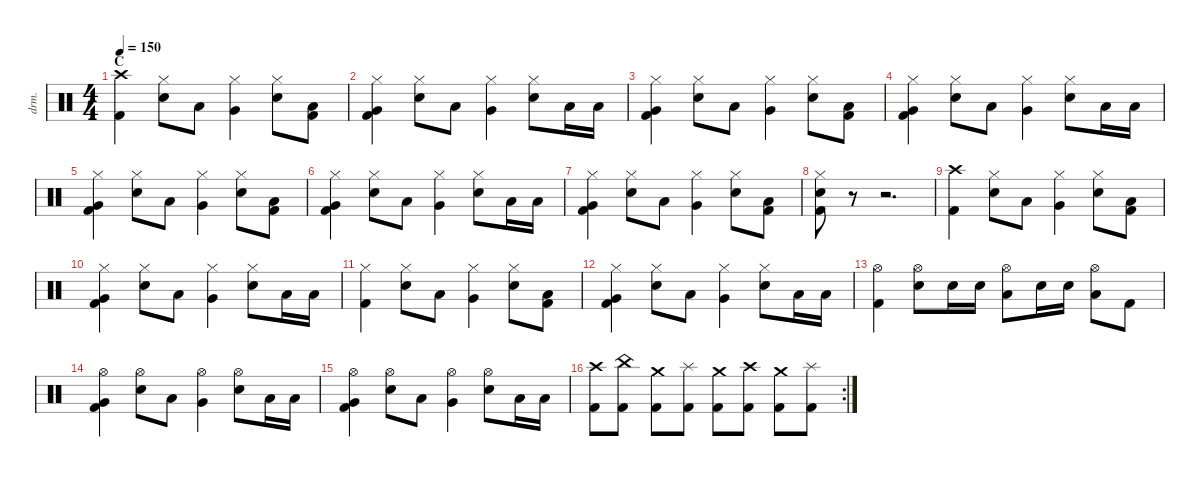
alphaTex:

\defaultSystemsLayout 4
\hideDynamics
\bracketExtendMode nobrackets
\otherSystemsTrackNameOrientation horizontal
\track ("Drum" "drm.") {instrument percussion}
\staff {score}
\articulation defaults
\ts (4 4)
\section ("" "C")
\tempo 150
\clef neutral
\ks c
("Crash high (hit)" "Kick (hit) 2").4{dy ff beam Down} ("Hi-Hat (closed)" "Snare (hit) 2").8{beam Down} "Low Tom (hit)".8{beam Down} ("Hi-Hat (closed)" "Very Low Tom (hit)").4{beam Down} ("Hi-Hat (closed)" "Snare (hit) 2").8{beam Down} ("Low Tom (hit)" "Kick (hit) 2").8{beam Down} |
("Hi-Hat (closed)" "Very Low Tom (hit)" "Kick (hit) 2").4{beam Down} ("Hi-Hat (closed)" "Snare (hit) 2").8{beam Down} "Low Tom (hit)".8{beam Down} ("Hi-Hat (closed)" "Very Low Tom (hit)").4{beam Down} ("Hi-Hat (closed)" "Snare (hit) 2").8{beam Down} "Low Tom (hit)".16{beam Down} "Low Tom (hit)".16{dy fff beam Down} |
("Hi-Hat (closed)" "Very Low Tom (hit)" "Kick (hit) 2").4{dy ff beam Down} ("Hi-Hat (closed)" "Snare (hit) 2").8{beam Down} "Low Tom (hit)".8{beam Down} ("Hi-Hat (closed)" "Very Low Tom (hit)").4{beam Down} ("Hi-Hat (closed)" "Snare (hit) 2").8{beam Down} ("Low Tom (hit)" "Kick (hit) 2").8{beam Down} |
("Hi-Hat (closed)" "Very Low Tom (hit)" "Kick (hit) 2").4{beam Down} ("Hi-Hat (closed)" "Snare (hit) 2").8{beam Down} "Low Tom (hit)".8{beam Down} ("Hi-Hat (closed)" "Very Low Tom (hit)").4{beam Down} ("Hi-Hat (closed)" "Snare (hit) 2").8{beam Down} "Low Tom (hit)".16{beam Down} "Low Tom (hit)".16{dy fff beam Down} |
("Hi-Hat (closed)" "Very Low Tom (hit)" "Kick (hit) 2").4{dy ff beam Down} ("Hi-Hat (closed)" "Snare (hit) 2").8{beam Down} "Low Tom (hit)".8{beam Down} ("Hi-Hat (closed)" "Very Low Tom (hit)").4{beam Down} ("Hi-Hat (closed)" "Snare (hit) 2").8{beam Down} ("Low Tom (hit)" "Kick (hit) 2").8{beam Down} |
("Hi-Hat (closed)" "Very Low Tom (hit)" "Kick (hit) 2").4{beam Down} ("Hi-Hat (closed)" "Snare (hit) 2").8{beam Down} "Low Tom (hit)".8{beam Down} ("Hi-Hat (closed)" "Very Low Tom (hit)").4{beam Down} ("Hi-Hat (closed)" "Snare (hit) 2").8{beam Down} "Low Tom (hit)".16{beam Down} "Low Tom (hit)".16{dy fff beam Down} |
("Hi-Hat (closed)" "Very Low Tom (hit)" "Kick (hit) 2").4{dy ff beam Down} ("Hi-Hat (closed)" "Snare (hit) 2").8{beam Down} "Low Tom (hit)".8{beam Down} ("Hi-Hat (closed)" "Very Low Tom (hit)").4{beam Down} ("Hi-Hat (closed)" "Snare (hit) 2").8{beam Down} ("Low Tom (hit)" "Kick (hit) 2").8{beam Down} |
("Hi-Hat (closed)" "Snare (hit) 2" "Kick (hit) 2").8{dy fff beam Down} r.8{beam Down} r.2{d beam Down} |
("Crash high (hit)" "Kick (hit) 2").4{dy ff beam Down} ("Hi-Hat (closed)" "Snare (hit) 2").8{beam Down} "Low Tom (hit)".8{beam Down} ("Hi-Hat (closed)" "Very Low Tom (hit)").4{beam Down} ("Hi-Hat (closed)" "Snare (hit) 2").8{beam Down} ("Low Tom (hit)" "Kick (hit) 2").8{beam Down} |
("Hi-Hat (closed)" "Very Low Tom (hit)" "Kick (hit) 2").4{beam Down} ("Hi-Hat (closed)" "Snare (hit) 2").8{beam Down} "Low Tom (hit)".8{beam Down} ("Hi-Hat (closed)" "Very Low Tom (hit)").4{beam Down} ("Hi-Hat (closed)" "Snare (hit) 2").8{beam Down} "Low Tom (hit)".16{beam Down} "Low Tom (hit)".16{dy fff beam Down} |
("Hi-Hat (closed)" "Kick (hit) 2").4{dy ff beam Down} ("Hi-Hat (closed)" "Snare (hit) 2").8{beam Down} "Low Tom (hit)".8{beam Down} ("Hi-Hat (closed)" "Very Low Tom (hit)").4{beam Down} ("Hi-Hat (closed)" "Snare (hit) 2").8{beam Down} ("Low Tom (hit)" "Kick (hit) 2").8{beam Down} |
("Hi-Hat (closed)" "Very Low Tom (hit)" "Kick (hit) 2").4{beam Down} ("Hi-Hat (closed)" "Snare (hit) 2").8{beam Down} "Low Tom (hit)".8{beam Down} ("Hi-Hat (closed)" "Very Low Tom (hit)").4{beam Down} ("Hi-Hat (closed)" "Snare (hit) 2").8{beam Down} "Low Tom (hit)".16{beam Down} "Low Tom (hit)".16{dy fff beam Down} |
("Hi-Hat (open)" "Kick (hit) 2").4{dy ff beam Down} ("Hi-Hat (open)" "Snare (hit) 2").8{beam Down} "Snare (hit) 2".16{beam Down} "Snare (hit) 2".16{beam Down} ("Hi-Hat (open)" "Low Tom (hit)").8{beam Down} "Snare (hit) 2".16{beam Down} "Snare (hit) 2".16{beam Down} ("Hi-Hat (open)" "Low Tom (hit)").8{beam Down} "Kick (hit) 2".8{beam Down} |
("Hi-Hat (open)" "Very Low Tom (hit)" "Kick (hit) 2").4{beam Down} ("Hi-Hat (open)" "Snare (hit) 2").8{beam Down} "Low Tom (hit)".8{beam Down} ("Hi-Hat (open)" "Very Low Tom (hit)").4{beam Down} ("Hi-Hat (open)" "Snare (hit) 2").8{beam Down} "Low Tom (hit)".16{beam Down} "Low Tom (hit)".16{dy fff beam Down} |
("Hi-Hat (open)" "Very Low Tom (hit)" "Kick (hit) 2").4{dy ff beam Down} ("Hi-Hat (open)" "Snare (hit) 2").8{beam Down} "Low Tom (hit)".8{beam Down} ("Hi-Hat (open)" "Very Low Tom (hit)").4{beam Down} ("Hi-Hat (open)" "Snare (hit) 2").8{beam Down} "Low Tom (hit)".16{beam Down} "Low Tom (hit)".16{dy fff beam Down} |
\rc 2
("Crash high (hit)" "Kick (hit) 2").8{dy ff beam Down} ("China (hit)" "Kick (hit) 2").8{beam Down} ("Crash medium (hit)" "Kick (hit) 2").8{beam Down} ("Splash (hit)" "Kick (hit) 2").8{beam Down} ("Crash medium (hit)" "Kick (hit) 2").8{beam Down} ("Crash high (hit)" "Kick (hit) 2").8{beam Down} ("Crash medium (hit)" "Kick (hit) 2").8{beam Down} ("Splash (hit)" "Kick (hit) 2").8{beam Down}
